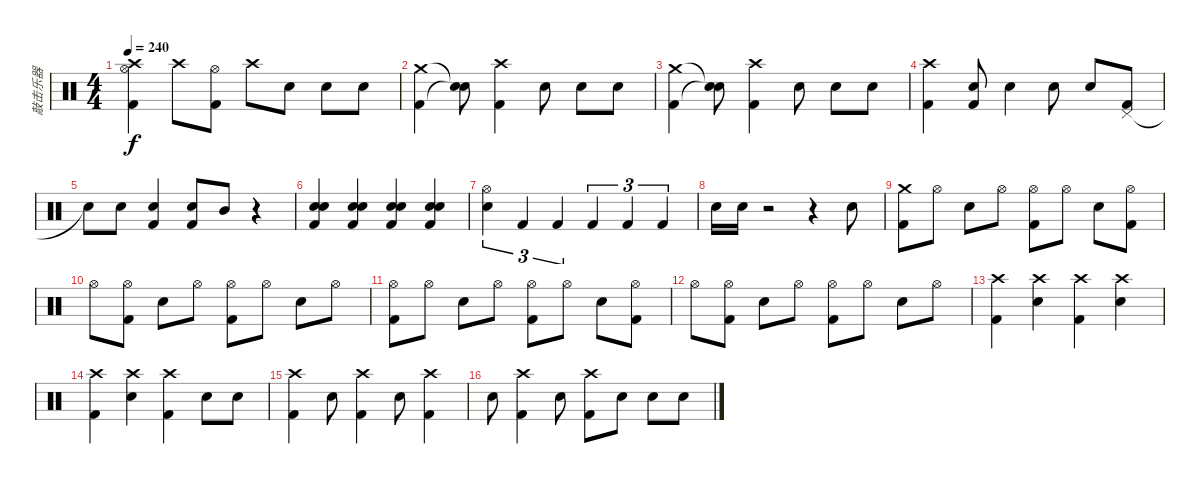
\track ("敲击乐器" "敲击乐器") {instrument percussion}
\staff {score}
\articulation defaults
\ts (4 4)
\tempo 240
\clef neutral
\ks c
("Crash high (hit)" "Hi-Hat (open)" "Kick (hit) 2").4{dy f} "Crash high (hit)".8 ("Hi-Hat (open)" "Kick (hit) 2").8 "Crash high (hit)".8 "Electric Snare (hit)".8 "Electric Snare (hit)".8 "Electric Snare (hit)".8 |
("Crash medium (hit)" "Kick (hit) 2").4 ("Snare (hit)"{t} "Snare (hit)"{t}).8 ("Crash high (hit)" "Kick (hit) 2").4 "Electric Snare (hit)".8 "Electric Snare (hit)".8 "Electric Snare (hit)".8 |
("Crash medium (hit)" "Kick (hit) 2").4 ("Snare (hit)"{t} "Snare (hit)"{t}).8 ("Crash high (hit)" "Kick (hit) 2").4 "Electric Snare (hit)".8 "Electric Snare (hit)".8 "Electric Snare (hit)".8 |
("Crash high (hit)" "Kick (hit) 2").4 ("Electric Snare (hit)" "Kick (hit) 2").8 "Electric Snare (hit)".4 "Electric Snare (hit)".8 "Electric Snare (hit)".8 ("Pedal Hi-Hat (hit)" "Kick (hit) 2").8 |
"Snare (hit)"{t}.8 "Electric Snare (hit)".8 ("Electric Snare (hit)" "Kick (hit) 2").4 ("Electric Snare (hit)" "Kick (hit) 2").8 "Mid Tom (hit)".8 r.4 |
("Electric Snare (hit)" "Snare (hit) 2" "Kick (hit) 2").4 ("Electric Snare (hit)" "Snare (hit) 2" "Kick (hit) 2").4 ("Electric Snare (hit)" "Snare (hit) 2" "Kick (hit) 2").4 ("Electric Snare (hit)" "Snare (hit) 2" "Kick (hit) 2").4 |
("Hi-Hat (open)" "Electric Snare (hit)").4{tu (3 2)} "Kick (hit) 2".4{tu (3 2)} "Kick (hit) 2".4{tu (3 2)} "Kick (hit) 2".4{tu (3 2)} "Kick (hit) 2".4{tu (3 2)} "Kick (hit) 2".4{tu (3 2)} |
"Electric Snare (hit)".16 "Electric Snare (hit)".16 r.2 r.4 "Electric Snare (hit)".8 |
("Crash medium (hit)" "Kick (hit) 2").8 "Hi-Hat (open)".8 "Electric Snare (hit)".8 "Hi-Hat (open)".8 ("Hi-Hat (open)" "Kick (hit) 2").8 "Hi-Hat (open)".8 "Electric Snare (hit)".8 ("Hi-Hat (open)" "Kick (hit) 2").8 |
"Hi-Hat (open)".8 ("Hi-Hat (open)" "Kick (hit) 2").8 "Electric Snare (hit)".8 "Hi-Hat (open)".8 ("Hi-Hat (open)" "Kick (hit) 2").8 "Hi-Hat (open)".8 "Electric Snare (hit)".8 "Hi-Hat (open)".8 |
("Hi-Hat (open)" "Kick (hit) 2").8 "Hi-Hat (open)".8 "Electric Snare (hit)".8 "Hi-Hat (open)".8 ("Hi-Hat (open)" "Kick (hit) 2").8 "Hi-Hat (open)".8 "Electric Snare (hit)".8 ("Hi-Hat (open)" "Kick (hit) 2").8 |
"Hi-Hat (open)".8 ("Hi-Hat (open)" "Kick (hit) 2").8 "Electric Snare (hit)".8 "Hi-Hat (open)".8 ("Hi-Hat (open)" "Kick (hit) 2").8 "Hi-Hat (open)".8 "Electric Snare (hit)".8 "Hi-Hat (open)".8 |
("Crash high (hit)" "Kick (hit) 2").4 ("Crash high (hit)" "Electric Snare (hit)").4 ("Crash high (hit)" "Kick (hit) 2").4 ("Crash high (hit)" "Electric Snare (hit)").4 |
("Crash high (hit)" "Kick (hit) 2").4 ("Crash high (hit)" "Electric Snare (hit)").4 ("Crash high (hit)" "Kick (hit) 2").4 "Electric Snare (hit)".8 "Electric Snare (hit)".8 |
("Crash high (hit)" "Kick (hit) 2").4 "Electric Snare (hit)".8 ("Crash high (hit)" "Kick (hit) 2").4 "Electric Snare (hit)".8 ("Crash high (hit)" "Kick (hit) 2").4 |
"Electric Snare (hit)".8 ("Crash high (hit)" "Kick (hit) 2").4 "Electric Snare (hit)".8 ("Crash high (hit)" "Kick (hit) 2").8 "Electric Snare (hit)".8 "Electric Snare (hit)".8 "Electric Snare (hit)".8
